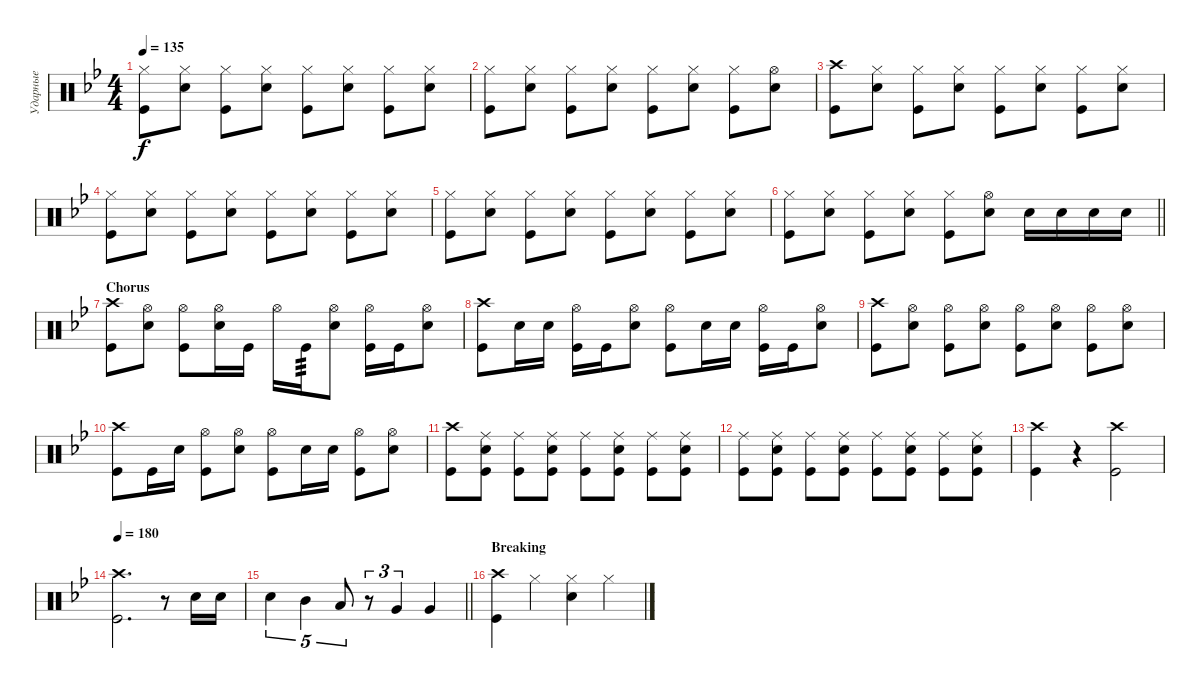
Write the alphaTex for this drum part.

\track ("Ударные" "Ударные") {instrument percussion}
\staff {score}
\articulation defaults
\ts (4 4)
\tempo 135
\clef neutral
\ks gminor
("Kick (hit)" "Hi-Hat (closed)").8{dy f} ("Snare (hit) 2" "Hi-Hat (closed)").8 ("Kick (hit)" "Hi-Hat (closed)").8 ("Snare (hit) 2" "Hi-Hat (closed)").8 ("Kick (hit)" "Hi-Hat (closed)").8 ("Snare (hit) 2" "Hi-Hat (closed)").8 ("Kick (hit)" "Hi-Hat (closed)").8 ("Snare (hit) 2" "Hi-Hat (closed)").8 |
("Kick (hit)" "Hi-Hat (closed)").8 ("Snare (hit) 2" "Hi-Hat (closed)").8 ("Kick (hit)" "Hi-Hat (closed)").8 ("Snare (hit) 2" "Hi-Hat (closed)").8 ("Kick (hit)" "Hi-Hat (closed)").8 ("Snare (hit) 2" "Hi-Hat (closed)").8 ("Kick (hit)" "Hi-Hat (closed)").8 ("Snare (hit) 2" "Hi-Hat (open)").8 |
("Kick (hit)" "Crash high (hit)").8 ("Snare (hit) 2" "Hi-Hat (closed)").8 ("Kick (hit)" "Hi-Hat (closed)").8 ("Snare (hit) 2" "Hi-Hat (closed)").8 ("Kick (hit)" "Hi-Hat (closed)").8 ("Snare (hit) 2" "Hi-Hat (closed)").8 ("Kick (hit)" "Hi-Hat (closed)").8 ("Snare (hit) 2" "Hi-Hat (closed)").8 |
("Kick (hit)" "Hi-Hat (closed)").8 ("Snare (hit) 2" "Hi-Hat (closed)").8 ("Kick (hit)" "Hi-Hat (closed)").8 ("Snare (hit) 2" "Hi-Hat (closed)").8 ("Kick (hit)" "Hi-Hat (closed)").8 ("Snare (hit) 2" "Hi-Hat (closed)").8 ("Kick (hit)" "Hi-Hat (closed)").8 ("Snare (hit) 2" "Hi-Hat (closed)").8 |
("Kick (hit)" "Hi-Hat (closed)").8 ("Snare (hit) 2" "Hi-Hat (closed)").8 ("Kick (hit)" "Hi-Hat (closed)").8 ("Snare (hit) 2" "Hi-Hat (closed)").8 ("Kick (hit)" "Hi-Hat (closed)").8 ("Snare (hit) 2" "Hi-Hat (closed)").8 ("Kick (hit)" "Hi-Hat (closed)").8 ("Snare (hit) 2" "Hi-Hat (closed)").8 |
\barLineRight lightlight
("Kick (hit)" "Hi-Hat (closed)").8 ("Snare (hit) 2" "Hi-Hat (closed)").8 ("Kick (hit)" "Hi-Hat (closed)").8 ("Snare (hit) 2" "Hi-Hat (closed)").8 ("Kick (hit)" "Hi-Hat (closed)").8 ("Snare (hit) 2" "Hi-Hat (open)").8 "Snare (hit) 2".16 "Snare (hit) 2".16 "Snare (hit) 2".16 "Snare (hit) 2".16 |
\section ("" "Chorus")
("Kick (hit)" "Crash high (hit)").8 ("Snare (hit) 2" "Hi-Hat (open)").8 ("Kick (hit)" "Hi-Hat (open)").8 ("Snare (hit) 2" "Hi-Hat (open)").16 "Kick (hit)".16 "Hi-Hat (open)".16 "Kick (hit)".16{tp 3} ("Snare (hit) 2" "Hi-Hat (open)").8 ("Kick (hit)" "Hi-Hat (open)").16 "Kick (hit)".16 ("Snare (hit) 2" "Hi-Hat (open)").8 |
("Kick (hit)" "Crash high (hit)").8 "Snare (hit) 2".16 "Snare (hit) 2".16 ("Kick (hit)" "Hi-Hat (open)").16 "Kick (hit)".16 ("Snare (hit) 2" "Hi-Hat (open)").8 ("Kick (hit)" "Hi-Hat (open)").8 "Snare (hit) 2".16 "Snare (hit) 2".16 ("Kick (hit)" "Hi-Hat (open)").16 "Kick (hit)".16 ("Snare (hit) 2" "Hi-Hat (open)").8 |
("Kick (hit)" "Crash high (hit)").8 ("Snare (hit) 2" "Hi-Hat (open)").8 ("Kick (hit)" "Hi-Hat (open)").8 ("Snare (hit) 2" "Hi-Hat (open)").8 ("Hi-Hat (open)" "Kick (hit)").8 ("Snare (hit) 2" "Hi-Hat (open)").8 ("Kick (hit)" "Hi-Hat (open)").8 ("Snare (hit) 2" "Hi-Hat (open)").8 |
("Kick (hit)" "Crash high (hit)").8 "Kick (hit)".16 "Snare (hit) 2".16 ("Kick (hit)" "Hi-Hat (open)").8 ("Snare (hit) 2" "Hi-Hat (open)").8 ("Kick (hit)" "Hi-Hat (open)").8 "Snare (hit) 2".16 "Snare (hit) 2".16 ("Kick (hit)" "Hi-Hat (open)").8 ("Snare (hit) 2" "Hi-Hat (open)").8 |
("Kick (hit)" "Crash high (hit)").8 ("Ride (middle)" "Kick (hit)" "Snare (hit) 2").8 ("Kick (hit)" "Ride (middle)").8 ("Kick (hit)" "Ride (middle)" "Snare (hit) 2").8 ("Kick (hit)" "Ride (middle)").8 ("Ride (middle)" "Kick (hit)" "Snare (hit) 2").8 ("Kick (hit)" "Ride (middle)").8 ("Kick (hit)" "Ride (middle)" "Snare (hit) 2").8 |
("Kick (hit)" "Ride (middle)").8 ("Ride (middle)" "Kick (hit)" "Snare (hit) 2").8 ("Kick (hit)" "Ride (middle)").8 ("Kick (hit)" "Ride (middle)" "Snare (hit) 2").8 ("Kick (hit)" "Ride (middle)").8 ("Ride (middle)" "Kick (hit)" "Snare (hit) 2").8 ("Kick (hit)" "Ride (middle)").8 ("Kick (hit)" "Ride (middle)" "Snare (hit) 2").8 |
("Kick (hit)" "Crash high (hit)").4 r.4 ("Kick (hit)" "Crash high (hit)").2 |
\tempo 180
("Kick (hit)" "Crash high (hit)").2{d} r.8 "Snare (hit) 2".16 "Snare (hit) 2".16 |
\barLineRight lightlight "Snare (hit) 2".4{tu (5 4)} "Mid Tom (hit)".4{tu (5 4)} "Low Tom (hit)".8{tu (5 4)}
r.8{tu (3 2)} "Very Low Tom (hit)".4{tu (3 2)} "Very Low Tom (hit)".4 |
\section ("" "Breaking")
("Kick (hit)" "Crash high (hit)").4 "Hi-Hat (closed)".4 ("Hi-Hat (closed)" "Snare (hit) 2").4 "Hi-Hat (closed)".4
